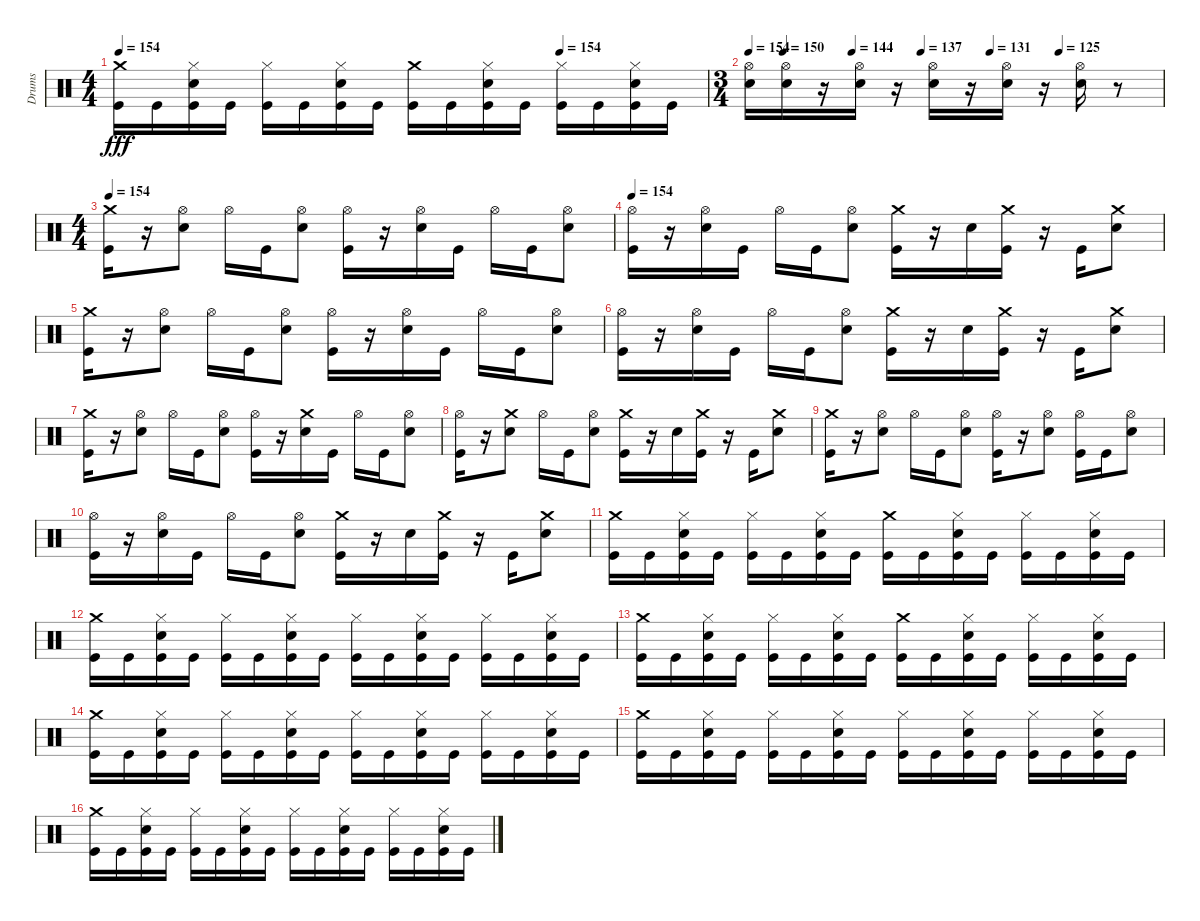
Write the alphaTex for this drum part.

\track ("Drums" "Drums") {instrument percussion}
\staff {score}
\articulation defaults
\ts (4 4)
\tempo 154
\tempo (154 0.75)
\clef neutral
\ks c
("Crash medium (hit)" "Kick (hit)").16{dy fff} "Kick (hit)".16 ("Snare (hit) 2" "Hi-Hat (closed)" "Kick (hit)").16 "Kick (hit)".16 ("Hi-Hat (closed)" "Kick (hit)").16 "Kick (hit)".16 ("Snare (hit) 2" "Hi-Hat (closed)" "Kick (hit)").16 "Kick (hit)".16 ("Crash medium (hit)" "Kick (hit)").16 "Kick (hit)".16 ("Snare (hit) 2" "Hi-Hat (closed)" "Kick (hit)").16 "Kick (hit)".16 ("Hi-Hat (closed)" "Kick (hit)").16 "Kick (hit)".16 ("Snare (hit) 2" "Hi-Hat (closed)" "Kick (hit)").16 "Kick (hit)".16 |
\ts (3 4)
\tempo 154
\tempo (150 0.08333333333333333)
\tempo (144 0.25)
\tempo (137 0.4166666666666667)
\tempo (131 0.5833333333333334)
\tempo (125 0.75)
("Hi-Hat (open)" "Snare (hit) 2").16 ("Hi-Hat (open)" "Snare (hit) 2").16 r.16 ("Hi-Hat (open)" "Snare (hit) 2").16 r.16 ("Hi-Hat (open)" "Snare (hit) 2").16 r.16 ("Hi-Hat (open)" "Snare (hit) 2").16 r.16 ("Hi-Hat (open)" "Snare (hit) 2").16 r.8 |
\ts (4 4)
\tempo 154
("Kick (hit)" "Crash medium (hit)").16 r.16 ("Snare (hit) 2" "Hi-Hat (open)").8 "Hi-Hat (open)".16 "Kick (hit)".16 ("Snare (hit) 2" "Hi-Hat (open)").8 ("Kick (hit)" "Hi-Hat (open)").16 r.16 ("Snare (hit) 2" "Hi-Hat (open)").16 "Kick (hit)".16 "Hi-Hat (open)".16 "Kick (hit)".16 ("Snare (hit) 2" "Hi-Hat (open)").8 |
\tempo 154
("Hi-Hat (open)" "Kick (hit)").16 r.16 ("Snare (hit) 2" "Hi-Hat (open)").16 "Kick (hit)".16 "Hi-Hat (open)".16 "Kick (hit)".16 ("Snare (hit) 2" "Hi-Hat (open)").8 ("Crash medium (hit)" "Kick (hit)").16 r.16 "Snare (hit) 2".16 ("Crash medium (hit)" "Kick (hit)").16 r.16 "Kick (hit)".16 ("Crash medium (hit)" "Snare (hit) 2").8 |
("Kick (hit)" "Crash medium (hit)").16 r.16 ("Snare (hit) 2" "Hi-Hat (open)").8 "Hi-Hat (open)".16 "Kick (hit)".16 ("Snare (hit) 2" "Hi-Hat (open)").8 ("Kick (hit)" "Hi-Hat (open)").16 r.16 ("Snare (hit) 2" "Hi-Hat (open)").16 "Kick (hit)".16 "Hi-Hat (open)".16 "Kick (hit)".16 ("Snare (hit) 2" "Hi-Hat (open)").8 |
("Hi-Hat (open)" "Kick (hit)").16 r.16 ("Snare (hit) 2" "Hi-Hat (open)").16 "Kick (hit)".16 "Hi-Hat (open)".16 "Kick (hit)".16 ("Snare (hit) 2" "Hi-Hat (open)").8 ("Crash medium (hit)" "Kick (hit)").16 r.16 "Snare (hit) 2".16 ("Crash medium (hit)" "Kick (hit)").16 r.16 "Kick (hit)".16 ("Crash medium (hit)" "Snare (hit) 2").8 |
("Kick (hit)" "Crash medium (hit)").16 r.16 ("Snare (hit) 2" "Hi-Hat (open)").8 "Hi-Hat (open)".16 "Kick (hit)".16 ("Snare (hit) 2" "Hi-Hat (open)").8 ("Kick (hit)" "Hi-Hat (open)").16 r.16 ("Crash medium (hit)" "Snare (hit) 2").16 "Kick (hit)".16 "Hi-Hat (open)".16 "Kick (hit)".16 ("Snare (hit) 2" "Hi-Hat (open)").8 |
("Hi-Hat (open)" "Kick (hit)").16 r.16 ("Crash medium (hit)" "Snare (hit) 2").8 "Hi-Hat (open)".16 "Kick (hit)".16 ("Snare (hit) 2" "Hi-Hat (open)").8 ("Crash medium (hit)" "Kick (hit)").16 r.16 "Snare (hit) 2".16 ("Crash medium (hit)" "Kick (hit)").16 r.16 "Kick (hit)".16 ("Crash medium (hit)" "Snare (hit) 2").8 |
("Kick (hit)" "Crash medium (hit)").16 r.16 ("Snare (hit) 2" "Hi-Hat (open)").8 "Hi-Hat (open)".16 "Kick (hit)".16 ("Snare (hit) 2" "Hi-Hat (open)").8 ("Kick (hit)" "Hi-Hat (open)").16 r.16 ("Snare (hit) 2" "Hi-Hat (open)").8 ("Kick (hit)" "Hi-Hat (open)").16 "Kick (hit)".16 ("Snare (hit) 2" "Hi-Hat (open)").8 |
("Hi-Hat (open)" "Kick (hit)").16 r.16 ("Snare (hit) 2" "Hi-Hat (open)").16 "Kick (hit)".16 "Hi-Hat (open)".16 "Kick (hit)".16 ("Snare (hit) 2" "Hi-Hat (open)").8 ("Crash medium (hit)" "Kick (hit)").16 r.16 "Snare (hit) 2".16 ("Crash medium (hit)" "Kick (hit)").16 r.16 "Kick (hit)".16 ("Crash medium (hit)" "Snare (hit) 2").8 |
("Crash medium (hit)" "Kick (hit)").16 "Kick (hit)".16 ("Snare (hit) 2" "Hi-Hat (closed)" "Kick (hit)").16 "Kick (hit)".16 ("Hi-Hat (closed)" "Kick (hit)").16 "Kick (hit)".16 ("Snare (hit) 2" "Hi-Hat (closed)" "Kick (hit)").16 "Kick (hit)".16 ("Crash medium (hit)" "Kick (hit)").16 "Kick (hit)".16 ("Snare (hit) 2" "Hi-Hat (closed)" "Kick (hit)").16 "Kick (hit)".16 ("Hi-Hat (closed)" "Kick (hit)").16 "Kick (hit)".16 ("Snare (hit) 2" "Hi-Hat (closed)" "Kick (hit)").16 "Kick (hit)".16 |
("Crash medium (hit)" "Kick (hit)").16 "Kick (hit)".16 ("Snare (hit) 2" "Hi-Hat (closed)" "Kick (hit)").16 "Kick (hit)".16 ("Hi-Hat (closed)" "Kick (hit)").16 "Kick (hit)".16 ("Snare (hit) 2" "Hi-Hat (closed)" "Kick (hit)").16 "Kick (hit)".16 ("Hi-Hat (closed)" "Kick (hit)").16 "Kick (hit)".16 ("Snare (hit) 2" "Hi-Hat (closed)" "Kick (hit)").16 "Kick (hit)".16 ("Hi-Hat (closed)" "Kick (hit)").16 "Kick (hit)".16 ("Snare (hit) 2" "Hi-Hat (closed)" "Kick (hit)").16 "Kick (hit)".16 |
("Crash medium (hit)" "Kick (hit)").16 "Kick (hit)".16 ("Snare (hit) 2" "Hi-Hat (closed)" "Kick (hit)").16 "Kick (hit)".16 ("Hi-Hat (closed)" "Kick (hit)").16 "Kick (hit)".16 ("Snare (hit) 2" "Hi-Hat (closed)" "Kick (hit)").16 "Kick (hit)".16 ("Crash medium (hit)" "Kick (hit)").16 "Kick (hit)".16 ("Snare (hit) 2" "Hi-Hat (closed)" "Kick (hit)").16 "Kick (hit)".16 ("Hi-Hat (closed)" "Kick (hit)").16 "Kick (hit)".16 ("Snare (hit) 2" "Hi-Hat (closed)" "Kick (hit)").16 "Kick (hit)".16 |
("Crash medium (hit)" "Kick (hit)").16 "Kick (hit)".16 ("Snare (hit) 2" "Hi-Hat (closed)" "Kick (hit)").16 "Kick (hit)".16 ("Hi-Hat (closed)" "Kick (hit)").16 "Kick (hit)".16 ("Snare (hit) 2" "Hi-Hat (closed)" "Kick (hit)").16 "Kick (hit)".16 ("Hi-Hat (closed)" "Kick (hit)").16 "Kick (hit)".16 ("Snare (hit) 2" "Hi-Hat (closed)" "Kick (hit)").16 "Kick (hit)".16 ("Hi-Hat (closed)" "Kick (hit)").16 "Kick (hit)".16 ("Snare (hit) 2" "Hi-Hat (closed)" "Kick (hit)").16 "Kick (hit)".16 |
("Crash medium (hit)" "Kick (hit)").16 "Kick (hit)".16 ("Snare (hit) 2" "Hi-Hat (closed)" "Kick (hit)").16 "Kick (hit)".16 ("Hi-Hat (closed)" "Kick (hit)").16 "Kick (hit)".16 ("Snare (hit) 2" "Hi-Hat (closed)" "Kick (hit)").16 "Kick (hit)".16 ("Hi-Hat (closed)" "Kick (hit)").16 "Kick (hit)".16 ("Snare (hit) 2" "Hi-Hat (closed)" "Kick (hit)").16 "Kick (hit)".16 ("Hi-Hat (closed)" "Kick (hit)").16 "Kick (hit)".16 ("Snare (hit) 2" "Hi-Hat (closed)" "Kick (hit)").16 "Kick (hit)".16 |
("Crash medium (hit)" "Kick (hit)").16 "Kick (hit)".16 ("Snare (hit) 2" "Hi-Hat (closed)" "Kick (hit)").16 "Kick (hit)".16 ("Hi-Hat (closed)" "Kick (hit)").16 "Kick (hit)".16 ("Snare (hit) 2" "Hi-Hat (closed)" "Kick (hit)").16 "Kick (hit)".16 ("Hi-Hat (closed)" "Kick (hit)").16 "Kick (hit)".16 ("Snare (hit) 2" "Hi-Hat (closed)" "Kick (hit)").16 "Kick (hit)".16 ("Hi-Hat (closed)" "Kick (hit)").16 "Kick (hit)".16 ("Snare (hit) 2" "Hi-Hat (closed)" "Kick (hit)").16 "Kick (hit)".16
